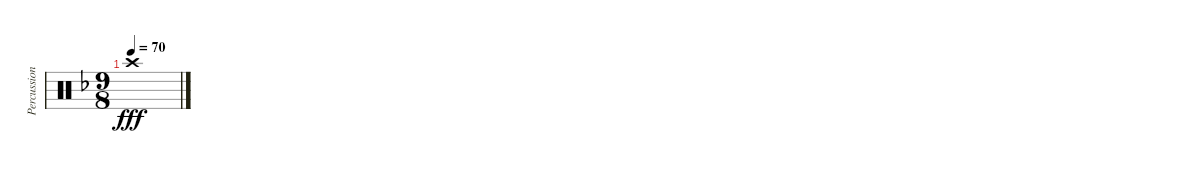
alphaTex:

\track ("Percussion" "Percussion") {instrument percussion}
\staff {score}
\articulation defaults
\ts (9 8)
\tempo 70
\clef neutral
\ks dminor "Crash high (hit)".1{dy fff}
